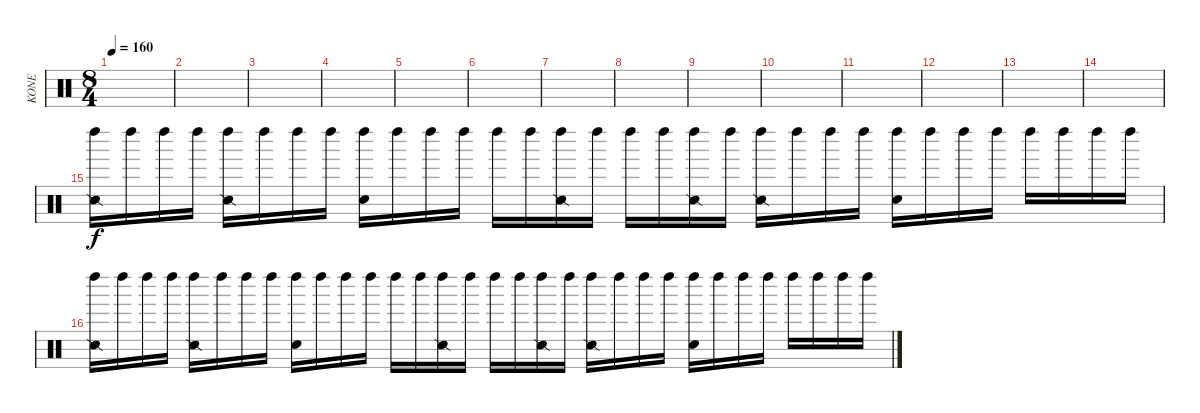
\track ("KONE" "KONE") {instrument percussion}
\staff {score}
\articulation defaults
\ts (8 4)
\tempo 160
\clef neutral
\ks c
|
|
|
|
|
|
|
|
|
|
|
|
|
|
("Left Maraca (hit)" "Snare (side stick) 2").16 "Left Maraca (hit)".16 "Left Maraca (hit)".16 "Left Maraca (hit)".16 ("Left Maraca (hit)" "Snare (side stick) 2").16 "Left Maraca (hit)".16 "Left Maraca (hit)".16 "Left Maraca (hit)".16 ("Left Maraca (hit)" "Hand Clap (hit)").16 "Left Maraca (hit)".16 "Left Maraca (hit)".16 "Left Maraca (hit)".16 "Left Maraca (hit)".16 "Left Maraca (hit)".16 ("Left Maraca (hit)" "Snare (side stick) 2").16 "Left Maraca (hit)".16 "Left Maraca (hit)".16 "Left Maraca (hit)".16 ("Left Maraca (hit)" "Snare (side stick) 2").16 "Left Maraca (hit)".16 ("Left Maraca (hit)" "Snare (side stick) 2").16 "Left Maraca (hit)".16 "Left Maraca (hit)".16 "Left Maraca (hit)".16 ("Left Maraca (hit)" "Hand Clap (hit)").16 "Left Maraca (hit)".16 "Left Maraca (hit)".16 "Left Maraca (hit)".16 "Left Maraca (hit)".16 "Left Maraca (hit)".16 "Left Maraca (hit)".16 "Left Maraca (hit)".16 |
("Left Maraca (hit)" "Snare (side stick) 2").16 "Left Maraca (hit)".16 "Left Maraca (hit)".16 "Left Maraca (hit)".16 ("Left Maraca (hit)" "Snare (side stick) 2").16 "Left Maraca (hit)".16 "Left Maraca (hit)".16 "Left Maraca (hit)".16 ("Left Maraca (hit)" "Hand Clap (hit)").16 "Left Maraca (hit)".16 "Left Maraca (hit)".16 "Left Maraca (hit)".16 "Left Maraca (hit)".16 "Left Maraca (hit)".16 ("Left Maraca (hit)" "Snare (side stick) 2").16 "Left Maraca (hit)".16 "Left Maraca (hit)".16 "Left Maraca (hit)".16 ("Left Maraca (hit)" "Snare (side stick) 2").16 "Left Maraca (hit)".16 ("Left Maraca (hit)" "Snare (side stick) 2").16 "Left Maraca (hit)".16 "Left Maraca (hit)".16 "Left Maraca (hit)".16 ("Left Maraca (hit)" "Hand Clap (hit)").16 "Left Maraca (hit)".16 "Left Maraca (hit)".16 "Left Maraca (hit)".16 "Left Maraca (hit)".16 "Left Maraca (hit)".16 "Left Maraca (hit)".16 "Left Maraca (hit)".16
